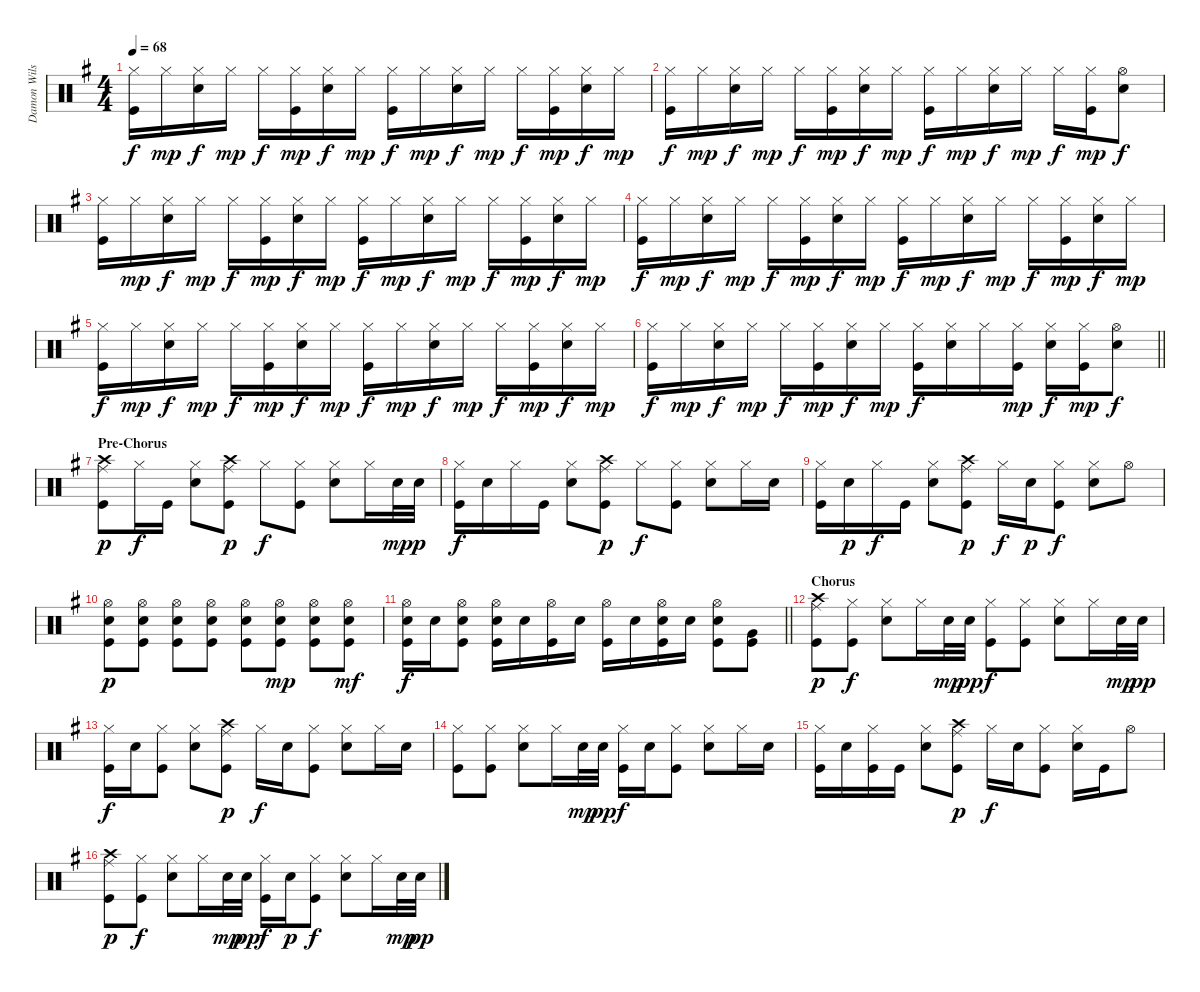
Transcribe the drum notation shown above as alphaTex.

\track ("Damon Wilson" "Damon Wils") {instrument percussion}
\staff {score}
\articulation defaults
\ts (4 4)
\tempo 68
\clef neutral
\ks g
("Hi-Hat (closed)" "Kick (hit)").16{dy f} "Hi-Hat (closed)".16{dy mp} ("Hi-Hat (closed)" "Electric Snare (hit)").16{dy f} "Hi-Hat (closed)".16{dy mp} "Hi-Hat (closed)".16{dy f} ("Hi-Hat (closed)" "Kick (hit)").16{dy mp} ("Hi-Hat (closed)" "Electric Snare (hit)").16{dy f} "Hi-Hat (closed)".16{dy mp} ("Hi-Hat (closed)" "Kick (hit)").16{dy f} "Hi-Hat (closed)".16{dy mp} ("Hi-Hat (closed)" "Electric Snare (hit)").16{dy f} "Hi-Hat (closed)".16{dy mp} "Hi-Hat (closed)".16{dy f} ("Hi-Hat (closed)" "Kick (hit)").16{dy mp} ("Hi-Hat (closed)" "Electric Snare (hit)").16{dy f} "Hi-Hat (closed)".16{dy mp} |
("Hi-Hat (closed)" "Kick (hit)").16{dy f} "Hi-Hat (closed)".16{dy mp} ("Hi-Hat (closed)" "Electric Snare (hit)").16{dy f} "Hi-Hat (closed)".16{dy mp} "Hi-Hat (closed)".16{dy f} ("Hi-Hat (closed)" "Kick (hit)").16{dy mp} ("Hi-Hat (closed)" "Electric Snare (hit)").16{dy f} "Hi-Hat (closed)".16{dy mp} ("Hi-Hat (closed)" "Kick (hit)").16{dy f} "Hi-Hat (closed)".16{dy mp} ("Hi-Hat (closed)" "Electric Snare (hit)").16{dy f} "Hi-Hat (closed)".16{dy mp} "Hi-Hat (closed)".16{dy f} ("Hi-Hat (closed)" "Kick (hit)").16{dy mp} ("Hi-Hat (open)" "Electric Snare (hit)").8{dy f} |
("Hi-Hat (closed)" "Kick (hit)").16 "Hi-Hat (closed)".16{dy mp} ("Hi-Hat (closed)" "Electric Snare (hit)").16{dy f} "Hi-Hat (closed)".16{dy mp} "Hi-Hat (closed)".16{dy f} ("Hi-Hat (closed)" "Kick (hit)").16{dy mp} ("Hi-Hat (closed)" "Electric Snare (hit)").16{dy f} "Hi-Hat (closed)".16{dy mp} ("Hi-Hat (closed)" "Kick (hit)").16{dy f} "Hi-Hat (closed)".16{dy mp} ("Hi-Hat (closed)" "Electric Snare (hit)").16{dy f} "Hi-Hat (closed)".16{dy mp} "Hi-Hat (closed)".16{dy f} ("Hi-Hat (closed)" "Kick (hit)").16{dy mp} ("Hi-Hat (closed)" "Electric Snare (hit)").16{dy f} "Hi-Hat (closed)".16{dy mp} |
("Hi-Hat (closed)" "Kick (hit)").16{dy f} "Hi-Hat (closed)".16{dy mp} ("Hi-Hat (closed)" "Electric Snare (hit)").16{dy f} "Hi-Hat (closed)".16{dy mp} "Hi-Hat (closed)".16{dy f} ("Hi-Hat (closed)" "Kick (hit)").16{dy mp} ("Hi-Hat (closed)" "Electric Snare (hit)").16{dy f} "Hi-Hat (closed)".16{dy mp} ("Hi-Hat (closed)" "Kick (hit)").16{dy f} "Hi-Hat (closed)".16{dy mp} ("Hi-Hat (closed)" "Electric Snare (hit)").16{dy f} "Hi-Hat (closed)".16{dy mp} "Hi-Hat (closed)".16{dy f} ("Hi-Hat (closed)" "Kick (hit)").16{dy mp} ("Hi-Hat (closed)" "Electric Snare (hit)").16{dy f} "Hi-Hat (closed)".16{dy mp} |
("Hi-Hat (closed)" "Kick (hit)").16{dy f} "Hi-Hat (closed)".16{dy mp} ("Hi-Hat (closed)" "Electric Snare (hit)").16{dy f} "Hi-Hat (closed)".16{dy mp} "Hi-Hat (closed)".16{dy f} ("Hi-Hat (closed)" "Kick (hit)").16{dy mp} ("Hi-Hat (closed)" "Electric Snare (hit)").16{dy f} "Hi-Hat (closed)".16{dy mp} ("Hi-Hat (closed)" "Kick (hit)").16{dy f} "Hi-Hat (closed)".16{dy mp} ("Hi-Hat (closed)" "Electric Snare (hit)").16{dy f} "Hi-Hat (closed)".16{dy mp} "Hi-Hat (closed)".16{dy f} ("Hi-Hat (closed)" "Kick (hit)").16{dy mp} ("Hi-Hat (closed)" "Electric Snare (hit)").16{dy f} "Hi-Hat (closed)".16{dy mp} |
\barLineRight lightlight
("Hi-Hat (closed)" "Kick (hit)").16{dy f} "Hi-Hat (closed)".16{dy mp} ("Hi-Hat (closed)" "Electric Snare (hit)").16{dy f} "Hi-Hat (closed)".16{dy mp} "Hi-Hat (closed)".16{dy f} ("Hi-Hat (closed)" "Kick (hit)").16{dy mp} ("Hi-Hat (closed)" "Electric Snare (hit)").16{dy f} "Hi-Hat (closed)".16{dy mp} ("Hi-Hat (closed)" "Kick (hit)").16{dy f} ("Hi-Hat (closed)" "Electric Snare (hit)").16 "Hi-Hat (closed)".16 ("Hi-Hat (closed)" "Kick (hit)").16{dy mp} ("Hi-Hat (closed)" "Electric Snare (hit)").16{dy f} ("Hi-Hat (closed)" "Kick (hit)").16{dy mp} ("Hi-Hat (open)" "Electric Snare (hit)").8{dy f} |
\section ("" "Pre-Chorus")
("Ride (middle)" "Crash high (hit)" "Kick (hit)").8{dy p} "Hi-Hat (closed)".16{dy f} "Kick (hit)".16 ("Hi-Hat (closed)" "Electric Snare (hit)").8 ("Ride (middle)" "Crash high (hit)" "Kick (hit)").8{dy p} "Hi-Hat (closed)".8{dy f} ("Hi-Hat (closed)" "Kick (hit)").8 ("Hi-Hat (closed)" "Electric Snare (hit)").8 "Hi-Hat (closed)".16 "Electric Snare (hit)".32{dy mp} "Electric Snare (hit)".32{dy p} |
("Hi-Hat (closed)" "Kick (hit)").16{dy f} "Electric Snare (hit)".16 "Hi-Hat (closed)".16 "Kick (hit)".16 ("Hi-Hat (closed)" "Electric Snare (hit)").8 ("Ride (middle)" "Crash high (hit)" "Kick (hit)").8{dy p} "Hi-Hat (closed)".8{dy f} ("Hi-Hat (closed)" "Kick (hit)").8 ("Hi-Hat (closed)" "Electric Snare (hit)").8 "Hi-Hat (closed)".16 "Electric Snare (hit)".16 |
("Hi-Hat (closed)" "Kick (hit)").16 "Electric Snare (hit)".16{dy p} "Hi-Hat (closed)".16{dy f} "Kick (hit)".16 ("Hi-Hat (closed)" "Electric Snare (hit)").8 ("Ride (middle)" "Crash high (hit)" "Kick (hit)").8{dy p} "Hi-Hat (closed)".16{dy f} "Electric Snare (hit)".16{dy p} ("Hi-Hat (closed)" "Kick (hit)").8{dy f} ("Hi-Hat (closed)" "Electric Snare (hit)").8 "Hi-Hat (open)".8 |
("Hi-Hat (open)" "Electric Snare (hit)" "Kick (hit)").8{dy p} ("Hi-Hat (open)" "Electric Snare (hit)" "Kick (hit)").8 ("Hi-Hat (open)" "Electric Snare (hit)" "Kick (hit)").8 ("Hi-Hat (open)" "Electric Snare (hit)" "Kick (hit)").8 ("Hi-Hat (open)" "Electric Snare (hit)" "Kick (hit)").8 ("Hi-Hat (open)" "Electric Snare (hit)" "Kick (hit)").8{dy mp} ("Hi-Hat (open)" "Electric Snare (hit)" "Kick (hit)").8 ("Hi-Hat (open)" "Electric Snare (hit)" "Kick (hit)").8{dy mf} |
\barLineRight lightlight
("Hi-Hat (open)" "Electric Snare (hit)" "Kick (hit)").16{dy f} "Electric Snare (hit)".16 ("Hi-Hat (open)" "Electric Snare (hit)" "Kick (hit)").8 ("Hi-Hat (open)" "Electric Snare (hit)" "Kick (hit)").16 "Electric Snare (hit)".16 ("Hi-Hat (open)" "Kick (hit)").16 "Electric Snare (hit)".16 ("Hi-Hat (open)" "Kick (hit)").16 "Electric Snare (hit)".16 ("Hi-Hat (open)" "Electric Snare (hit)" "Kick (hit)").16 "Electric Snare (hit)".16 ("Hi-Hat (open)" "Electric Snare (hit)" "Kick (hit)").8 ("Very Low Tom (hit)" "Kick (hit)").8 |
\section ("" "Chorus")
("Ride (middle)" "Crash high (hit)" "Kick (hit)").8{dy p} ("Hi-Hat (closed)" "Kick (hit)").8{dy f} ("Hi-Hat (closed)" "Electric Snare (hit)").8 "Hi-Hat (closed)".16 "Electric Snare (hit)".32{dy mp} "Electric Snare (hit)".32{dy pp} ("Hi-Hat (closed)" "Kick (hit)").8{dy f} ("Hi-Hat (closed)" "Kick (hit)").8 ("Hi-Hat (closed)" "Electric Snare (hit)").8 "Hi-Hat (closed)".16 "Electric Snare (hit)".32{dy mp} "Electric Snare (hit)".32{dy pp} |
("Hi-Hat (closed)" "Kick (hit)").16{dy f} "Electric Snare (hit)".16 ("Hi-Hat (closed)" "Kick (hit)").8 ("Hi-Hat (closed)" "Electric Snare (hit)").8 ("Ride (middle)" "Crash high (hit)" "Kick (hit)").8{dy p} "Hi-Hat (closed)".16{dy f} "Electric Snare (hit)".16 ("Hi-Hat (closed)" "Kick (hit)").8 ("Hi-Hat (closed)" "Electric Snare (hit)").8 "Hi-Hat (closed)".16 "Electric Snare (hit)".16 |
("Hi-Hat (closed)" "Kick (hit)").8 ("Hi-Hat (closed)" "Kick (hit)").8 ("Hi-Hat (closed)" "Electric Snare (hit)").8 "Hi-Hat (closed)".16 "Electric Snare (hit)".32{dy mp} "Electric Snare (hit)".32{dy pp} ("Hi-Hat (closed)" "Kick (hit)").16{dy f} "Electric Snare (hit)".16 ("Hi-Hat (closed)" "Kick (hit)").8 ("Hi-Hat (closed)" "Electric Snare (hit)").8 "Hi-Hat (closed)".16 "Electric Snare (hit)".16 |
("Hi-Hat (closed)" "Kick (hit)").16 "Electric Snare (hit)".16 ("Hi-Hat (closed)" "Kick (hit)").16 "Kick (hit)".16 ("Hi-Hat (closed)" "Electric Snare (hit)").8 ("Ride (middle)" "Crash high (hit)" "Kick (hit)").8{dy p} "Hi-Hat (closed)".16{dy f} "Electric Snare (hit)".16 ("Hi-Hat (closed)" "Kick (hit)").8 ("Hi-Hat (closed)" "Electric Snare (hit)").16 "Kick (hit)".16 "Hi-Hat (open)".8 |
("Ride (middle)" "Crash high (hit)" "Kick (hit)").8{dy p} ("Hi-Hat (closed)" "Kick (hit)").8{dy f} ("Hi-Hat (closed)" "Electric Snare (hit)").8 "Hi-Hat (closed)".16 "Electric Snare (hit)".32{dy mp} "Electric Snare (hit)".32{dy pp} ("Hi-Hat (closed)" "Kick (hit)").16{dy f} "Electric Snare (hit)".16{dy p} ("Hi-Hat (closed)" "Kick (hit)").8{dy f} ("Hi-Hat (closed)" "Electric Snare (hit)").8 "Hi-Hat (closed)".16 "Electric Snare (hit)".32{dy mp} "Electric Snare (hit)".32{dy pp}
